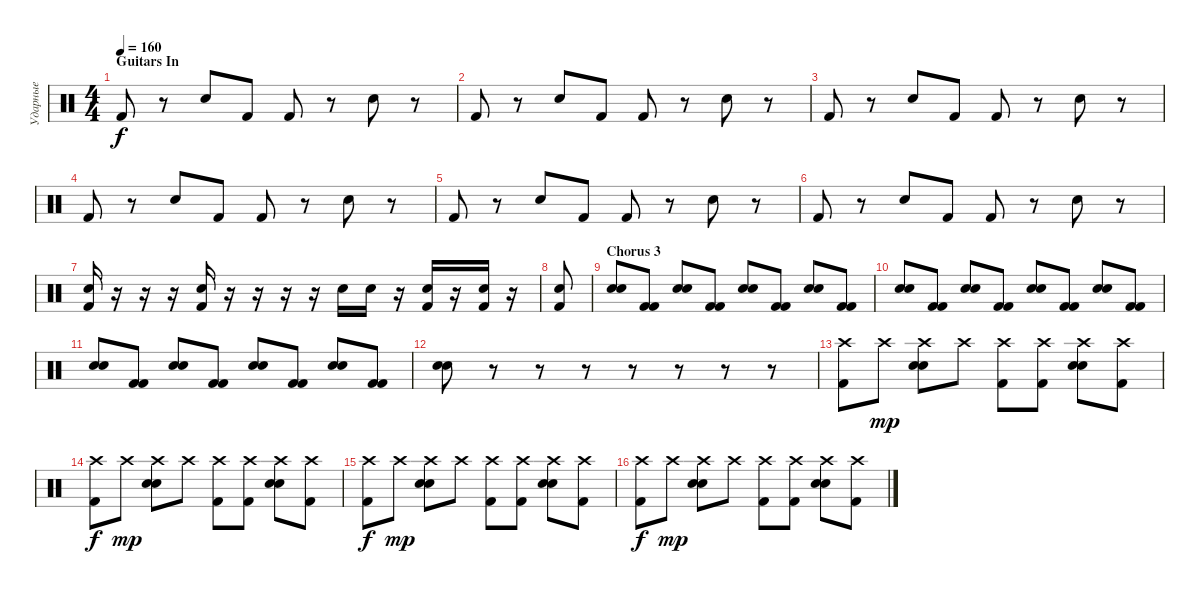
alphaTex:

\track ("Ударные" "Ударные") {instrument percussion}
\staff {score}
\articulation defaults
\ts (4 4)
\section ("" "Guitars In")
\tempo 160
\clef neutral
\ks c "Kick (hit) 2".8{dy f}
r.8 "Electric Snare (hit)".8 "Kick (hit) 2".8 "Kick (hit) 2".8 r.8 "Electric Snare (hit)".8 r.8 |
"Kick (hit) 2".8 r.8 "Electric Snare (hit)".8 "Kick (hit) 2".8 "Kick (hit) 2".8 r.8 "Electric Snare (hit)".8 r.8 |
"Kick (hit) 2".8 r.8 "Electric Snare (hit)".8 "Kick (hit) 2".8 "Kick (hit) 2".8 r.8 "Electric Snare (hit)".8 r.8 |
"Kick (hit) 2".8 r.8 "Electric Snare (hit)".8 "Kick (hit) 2".8 "Kick (hit) 2".8 r.8 "Electric Snare (hit)".8 r.8 |
"Kick (hit) 2".8 r.8 "Electric Snare (hit)".8 "Kick (hit) 2".8 "Kick (hit) 2".8 r.8 "Electric Snare (hit)".8 r.8 |
"Kick (hit) 2".8 r.8 "Electric Snare (hit)".8 "Kick (hit) 2".8 "Kick (hit) 2".8 r.8 "Electric Snare (hit)".8 r.8 |
("Kick (hit) 2" "Electric Snare (hit)").16 r.16 r.16 r.16 ("Kick (hit) 2" "Electric Snare (hit)").16 r.16 r.16 r.16 r.16 "Electric Snare (hit)".16 "Electric Snare (hit)".16 r.16 ("Kick (hit) 2" "Electric Snare (hit)").16 r.16 ("Kick (hit) 2" "Electric Snare (hit)").16 r.16 |
("Kick (hit) 2" "Electric Snare (hit)").8 |
\section ("" "Chorus 3")
("Electric Snare (hit)" "Electric Snare (hit)").8 ("Kick (hit) 2" "Kick (hit) 2").8 ("Electric Snare (hit)" "Electric Snare (hit)").8 ("Kick (hit) 2" "Kick (hit) 2").8 ("Electric Snare (hit)" "Electric Snare (hit)").8 ("Kick (hit) 2" "Kick (hit) 2").8 ("Electric Snare (hit)" "Electric Snare (hit)").8 ("Kick (hit) 2" "Kick (hit) 2").8 |
("Electric Snare (hit)" "Electric Snare (hit)").8 ("Kick (hit) 2" "Kick (hit) 2").8 ("Electric Snare (hit)" "Electric Snare (hit)").8 ("Kick (hit) 2" "Kick (hit) 2").8 ("Electric Snare (hit)" "Electric Snare (hit)").8 ("Kick (hit) 2" "Kick (hit) 2").8 ("Electric Snare (hit)" "Electric Snare (hit)").8 ("Kick (hit) 2" "Kick (hit) 2").8 |
("Electric Snare (hit)" "Electric Snare (hit)").8 ("Kick (hit) 2" "Kick (hit) 2").8 ("Electric Snare (hit)" "Electric Snare (hit)").8 ("Kick (hit) 2" "Kick (hit) 2").8 ("Electric Snare (hit)" "Electric Snare (hit)").8 ("Kick (hit) 2" "Kick (hit) 2").8 ("Electric Snare (hit)" "Electric Snare (hit)").8 ("Kick (hit) 2" "Kick (hit) 2").8 |
("Electric Snare (hit)" "Electric Snare (hit)").8 r.8 r.8 r.8 r.8 r.8 r.8 r.8 |
("Crash high (hit)" "Kick (hit) 2").8 "Crash high (hit)".8{dy mp} ("Crash high (hit)" "Electric Snare (hit)" "Electric Snare (hit)").8 "Crash high (hit)".8 ("Crash high (hit)" "Kick (hit) 2").8 ("Crash high (hit)" "Kick (hit) 2").8 ("Crash high (hit)" "Electric Snare (hit)" "Electric Snare (hit)").8 ("Crash high (hit)" "Kick (hit) 2").8 |
("Crash high (hit)" "Kick (hit) 2").8{dy f} "Crash high (hit)".8{dy mp} ("Crash high (hit)" "Electric Snare (hit)" "Electric Snare (hit)").8 "Crash high (hit)".8 ("Crash high (hit)" "Kick (hit) 2").8 ("Crash high (hit)" "Kick (hit) 2").8 ("Crash high (hit)" "Electric Snare (hit)" "Electric Snare (hit)").8 ("Crash high (hit)" "Kick (hit) 2").8 |
("Crash high (hit)" "Kick (hit) 2").8{dy f} "Crash high (hit)".8{dy mp} ("Crash high (hit)" "Electric Snare (hit)" "Electric Snare (hit)").8 "Crash high (hit)".8 ("Crash high (hit)" "Kick (hit) 2").8 ("Crash high (hit)" "Kick (hit) 2").8 ("Crash high (hit)" "Electric Snare (hit)" "Electric Snare (hit)").8 ("Crash high (hit)" "Kick (hit) 2").8 |
("Crash high (hit)" "Kick (hit) 2").8{dy f} "Crash high (hit)".8{dy mp} ("Crash high (hit)" "Electric Snare (hit)" "Electric Snare (hit)").8 "Crash high (hit)".8 ("Crash high (hit)" "Kick (hit) 2").8 ("Crash high (hit)" "Kick (hit) 2").8 ("Crash high (hit)" "Electric Snare (hit)" "Electric Snare (hit)").8 ("Crash high (hit)" "Kick (hit) 2").8
